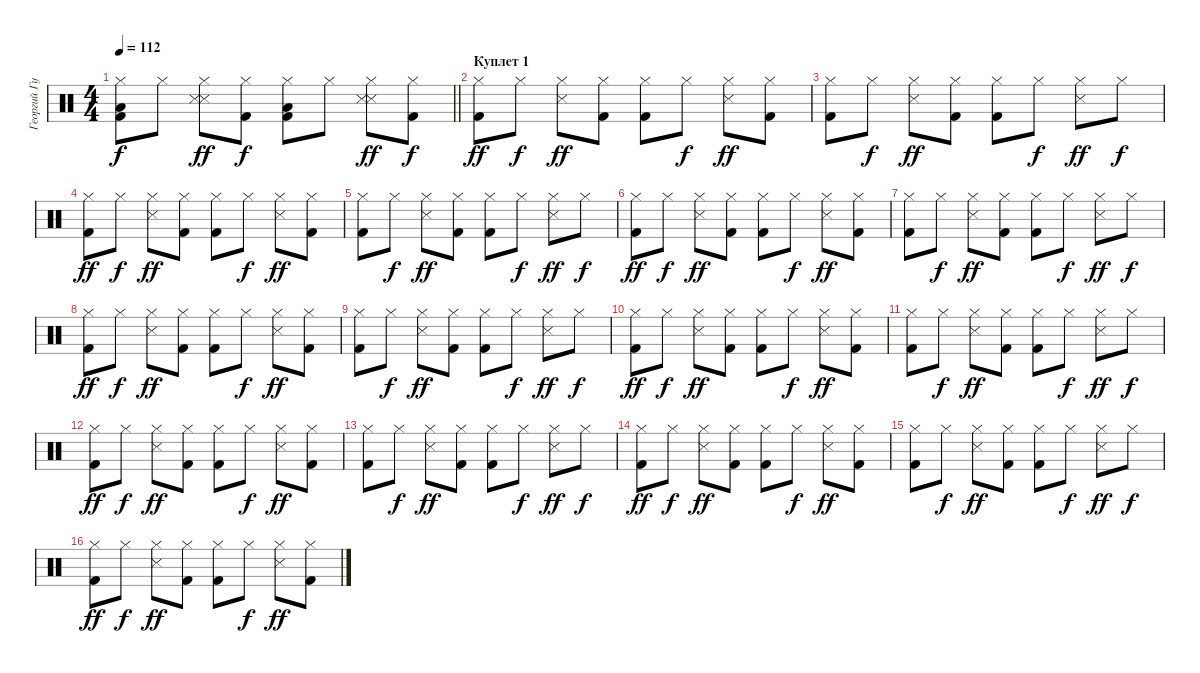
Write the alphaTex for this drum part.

\track ("Георгий Гурьянов" "Георгий Гу") {instrument percussion}
\staff {score}
\articulation defaults
\ts (4 4)
\tempo 112
\clef neutral
\barLineRight lightlight
\ks c
("Hi-Hat (closed)" "Low Tom (hit)" "Kick (hit) 2").8{dy f} "Hi-Hat (closed)".8 ("Hi-Hat (closed)" "Snare (side stick) 3" "Metronome (hit)").8{dy ff} ("Hi-Hat (closed)" "Kick (hit) 2").8{dy f} ("Hi-Hat (closed)" "Low Tom (hit)" "Kick (hit) 2").8 "Hi-Hat (closed)".8 ("Hi-Hat (closed)" "Snare (side stick) 3" "Metronome (hit)").8{dy ff} ("Hi-Hat (closed)" "Kick (hit) 2").8{dy f} |
\section ("" "Куплет 1")
("Hi-Hat (closed)" "Kick (hit) 2").8{dy ff} "Hi-Hat (closed)".8{dy f} ("Hi-Hat (closed)" "Snare (side stick) 3").8{dy ff} ("Hi-Hat (closed)" "Kick (hit) 2").8 ("Hi-Hat (closed)" "Kick (hit) 2").8 "Hi-Hat (closed)".8{dy f} ("Hi-Hat (closed)" "Snare (side stick) 3").8{dy ff} ("Hi-Hat (closed)" "Kick (hit) 2").8 |
("Hi-Hat (closed)" "Kick (hit) 2").8 "Hi-Hat (closed)".8{dy f} ("Hi-Hat (closed)" "Snare (side stick) 3").8{dy ff} ("Hi-Hat (closed)" "Kick (hit) 2").8 ("Hi-Hat (closed)" "Kick (hit) 2").8 "Hi-Hat (closed)".8{dy f} ("Hi-Hat (closed)" "Snare (side stick) 3").8{dy ff} "Hi-Hat (closed)".8{dy f} |
("Hi-Hat (closed)" "Kick (hit) 2").8{dy ff} "Hi-Hat (closed)".8{dy f} ("Hi-Hat (closed)" "Snare (side stick) 3").8{dy ff} ("Hi-Hat (closed)" "Kick (hit) 2").8 ("Hi-Hat (closed)" "Kick (hit) 2").8 "Hi-Hat (closed)".8{dy f} ("Hi-Hat (closed)" "Snare (side stick) 3").8{dy ff} ("Hi-Hat (closed)" "Kick (hit) 2").8 |
("Hi-Hat (closed)" "Kick (hit) 2").8 "Hi-Hat (closed)".8{dy f} ("Hi-Hat (closed)" "Snare (side stick) 3").8{dy ff} ("Hi-Hat (closed)" "Kick (hit) 2").8 ("Hi-Hat (closed)" "Kick (hit) 2").8 "Hi-Hat (closed)".8{dy f} ("Hi-Hat (closed)" "Snare (side stick) 3").8{dy ff} "Hi-Hat (closed)".8{dy f} |
("Hi-Hat (closed)" "Kick (hit) 2").8{dy ff} "Hi-Hat (closed)".8{dy f} ("Hi-Hat (closed)" "Snare (side stick) 3").8{dy ff} ("Hi-Hat (closed)" "Kick (hit) 2").8 ("Hi-Hat (closed)" "Kick (hit) 2").8 "Hi-Hat (closed)".8{dy f} ("Hi-Hat (closed)" "Snare (side stick) 3").8{dy ff} ("Hi-Hat (closed)" "Kick (hit) 2").8 |
("Hi-Hat (closed)" "Kick (hit) 2").8 "Hi-Hat (closed)".8{dy f} ("Hi-Hat (closed)" "Snare (side stick) 3").8{dy ff} ("Hi-Hat (closed)" "Kick (hit) 2").8 ("Hi-Hat (closed)" "Kick (hit) 2").8 "Hi-Hat (closed)".8{dy f} ("Hi-Hat (closed)" "Snare (side stick) 3").8{dy ff} "Hi-Hat (closed)".8{dy f} |
("Hi-Hat (closed)" "Kick (hit) 2").8{dy ff} "Hi-Hat (closed)".8{dy f} ("Hi-Hat (closed)" "Snare (side stick) 3").8{dy ff} ("Hi-Hat (closed)" "Kick (hit) 2").8 ("Hi-Hat (closed)" "Kick (hit) 2").8 "Hi-Hat (closed)".8{dy f} ("Hi-Hat (closed)" "Snare (side stick) 3").8{dy ff} ("Hi-Hat (closed)" "Kick (hit) 2").8 |
("Hi-Hat (closed)" "Kick (hit) 2").8 "Hi-Hat (closed)".8{dy f} ("Hi-Hat (closed)" "Snare (side stick) 3").8{dy ff} ("Hi-Hat (closed)" "Kick (hit) 2").8 ("Hi-Hat (closed)" "Kick (hit) 2").8 "Hi-Hat (closed)".8{dy f} ("Hi-Hat (closed)" "Snare (side stick) 3").8{dy ff} "Hi-Hat (closed)".8{dy f} |
("Hi-Hat (closed)" "Kick (hit) 2").8{dy ff} "Hi-Hat (closed)".8{dy f} ("Hi-Hat (closed)" "Snare (side stick) 3").8{dy ff} ("Hi-Hat (closed)" "Kick (hit) 2").8 ("Hi-Hat (closed)" "Kick (hit) 2").8 "Hi-Hat (closed)".8{dy f} ("Hi-Hat (closed)" "Snare (side stick) 3").8{dy ff} ("Hi-Hat (closed)" "Kick (hit) 2").8 |
("Hi-Hat (closed)" "Kick (hit) 2").8 "Hi-Hat (closed)".8{dy f} ("Hi-Hat (closed)" "Snare (side stick) 3").8{dy ff} ("Hi-Hat (closed)" "Kick (hit) 2").8 ("Hi-Hat (closed)" "Kick (hit) 2").8 "Hi-Hat (closed)".8{dy f} ("Hi-Hat (closed)" "Snare (side stick) 3").8{dy ff} "Hi-Hat (closed)".8{dy f} |
("Hi-Hat (closed)" "Kick (hit) 2").8{dy ff} "Hi-Hat (closed)".8{dy f} ("Hi-Hat (closed)" "Snare (side stick) 3").8{dy ff} ("Hi-Hat (closed)" "Kick (hit) 2").8 ("Hi-Hat (closed)" "Kick (hit) 2").8 "Hi-Hat (closed)".8{dy f} ("Hi-Hat (closed)" "Snare (side stick) 3").8{dy ff} ("Hi-Hat (closed)" "Kick (hit) 2").8 |
("Hi-Hat (closed)" "Kick (hit) 2").8 "Hi-Hat (closed)".8{dy f} ("Hi-Hat (closed)" "Snare (side stick) 3").8{dy ff} ("Hi-Hat (closed)" "Kick (hit) 2").8 ("Hi-Hat (closed)" "Kick (hit) 2").8 "Hi-Hat (closed)".8{dy f} ("Hi-Hat (closed)" "Snare (side stick) 3").8{dy ff} "Hi-Hat (closed)".8{dy f} |
("Hi-Hat (closed)" "Kick (hit) 2").8{dy ff} "Hi-Hat (closed)".8{dy f} ("Hi-Hat (closed)" "Snare (side stick) 3").8{dy ff} ("Hi-Hat (closed)" "Kick (hit) 2").8 ("Hi-Hat (closed)" "Kick (hit) 2").8 "Hi-Hat (closed)".8{dy f} ("Hi-Hat (closed)" "Snare (side stick) 3").8{dy ff} ("Hi-Hat (closed)" "Kick (hit) 2").8 |
("Hi-Hat (closed)" "Kick (hit) 2").8 "Hi-Hat (closed)".8{dy f} ("Hi-Hat (closed)" "Snare (side stick) 3").8{dy ff} ("Hi-Hat (closed)" "Kick (hit) 2").8 ("Hi-Hat (closed)" "Kick (hit) 2").8 "Hi-Hat (closed)".8{dy f} ("Hi-Hat (closed)" "Snare (side stick) 3").8{dy ff} "Hi-Hat (closed)".8{dy f} |
("Hi-Hat (closed)" "Kick (hit) 2").8{dy ff} "Hi-Hat (closed)".8{dy f} ("Hi-Hat (closed)" "Snare (side stick) 3").8{dy ff} ("Hi-Hat (closed)" "Kick (hit) 2").8 ("Hi-Hat (closed)" "Kick (hit) 2").8 "Hi-Hat (closed)".8{dy f} ("Hi-Hat (closed)" "Snare (side stick) 3").8{dy ff} ("Hi-Hat (closed)" "Kick (hit) 2").8
